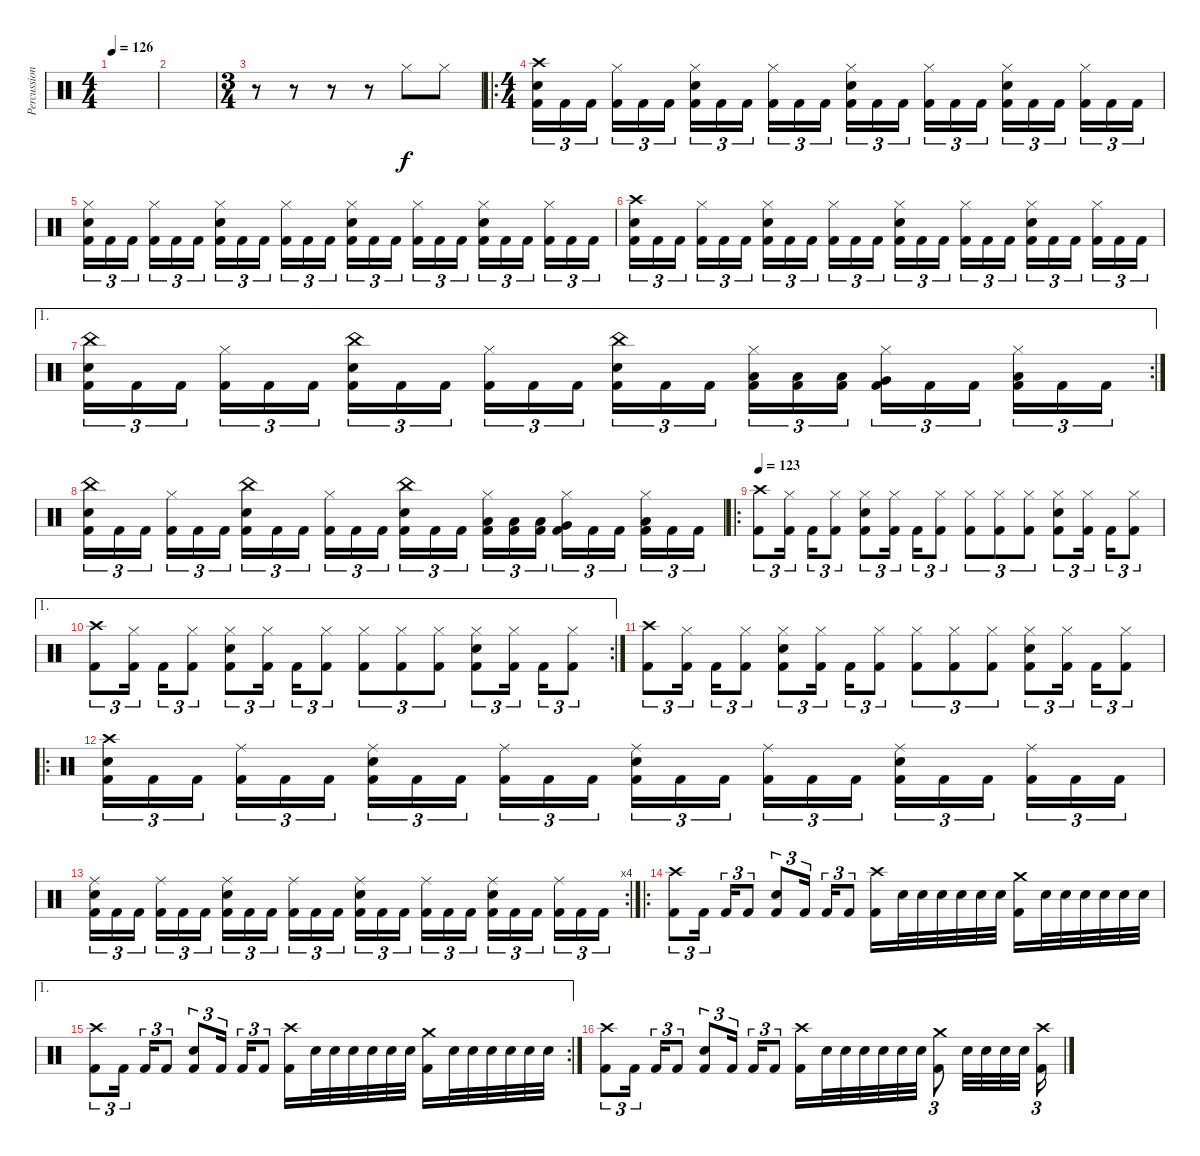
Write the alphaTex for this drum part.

\track ("Percussion" "Percussion") {instrument percussion}
\staff {score}
\articulation defaults
\ts (4 4)
\tempo 126
\clef neutral
\ks c
|
|
\ts (3 4)
r.8 r.8 r.8 r.8 "Hi-Hat (closed)".8 "Hi-Hat (closed)".8 |
\ro
\ts (4 4)
("Crash high (hit)" "Snare (hit) 2" "Kick (hit) 2").16{tu (3 2)} "Kick (hit) 2".16{tu (3 2)} "Kick (hit) 2".16{tu (3 2)} ("Hi-Hat (closed)" "Kick (hit) 2").16{tu (3 2)} "Kick (hit) 2".16{tu (3 2)} "Kick (hit) 2".16{tu (3 2)} ("Hi-Hat (closed)" "Snare (hit) 2" "Kick (hit) 2").16{tu (3 2)} "Kick (hit) 2".16{tu (3 2)} "Kick (hit) 2".16{tu (3 2)} ("Hi-Hat (closed)" "Kick (hit) 2").16{tu (3 2)} "Kick (hit) 2".16{tu (3 2)} "Kick (hit) 2".16{tu (3 2)} ("Hi-Hat (closed)" "Snare (hit) 2" "Kick (hit) 2").16{tu (3 2)} "Kick (hit) 2".16{tu (3 2)} "Kick (hit) 2".16{tu (3 2)} ("Hi-Hat (closed)" "Kick (hit) 2").16{tu (3 2)} "Kick (hit) 2".16{tu (3 2)} "Kick (hit) 2".16{tu (3 2)} ("Hi-Hat (closed)" "Snare (hit) 2" "Kick (hit) 2").16{tu (3 2)} "Kick (hit) 2".16{tu (3 2)} "Kick (hit) 2".16{tu (3 2)} ("Hi-Hat (closed)" "Kick (hit) 2").16{tu (3 2)} "Kick (hit) 2".16{tu (3 2)} "Kick (hit) 2".16{tu (3 2)} |
("Hi-Hat (closed)" "Snare (hit) 2" "Kick (hit) 2").16{tu (3 2)} "Kick (hit) 2".16{tu (3 2)} "Kick (hit) 2".16{tu (3 2)} ("Hi-Hat (closed)" "Kick (hit) 2").16{tu (3 2)} "Kick (hit) 2".16{tu (3 2)} "Kick (hit) 2".16{tu (3 2)} ("Hi-Hat (closed)" "Snare (hit) 2" "Kick (hit) 2").16{tu (3 2)} "Kick (hit) 2".16{tu (3 2)} "Kick (hit) 2".16{tu (3 2)} ("Hi-Hat (closed)" "Kick (hit) 2").16{tu (3 2)} "Kick (hit) 2".16{tu (3 2)} "Kick (hit) 2".16{tu (3 2)} ("Hi-Hat (closed)" "Snare (hit) 2" "Kick (hit) 2").16{tu (3 2)} "Kick (hit) 2".16{tu (3 2)} "Kick (hit) 2".16{tu (3 2)} ("Hi-Hat (closed)" "Kick (hit) 2").16{tu (3 2)} "Kick (hit) 2".16{tu (3 2)} "Kick (hit) 2".16{tu (3 2)} ("Hi-Hat (closed)" "Snare (hit) 2" "Kick (hit) 2").16{tu (3 2)} "Kick (hit) 2".16{tu (3 2)} "Kick (hit) 2".16{tu (3 2)} ("Hi-Hat (closed)" "Kick (hit) 2").16{tu (3 2)} "Kick (hit) 2".16{tu (3 2)} "Kick (hit) 2".16{tu (3 2)} |
("Crash high (hit)" "Snare (hit) 2" "Kick (hit) 2").16{tu (3 2)} "Kick (hit) 2".16{tu (3 2)} "Kick (hit) 2".16{tu (3 2)} ("Hi-Hat (closed)" "Kick (hit) 2").16{tu (3 2)} "Kick (hit) 2".16{tu (3 2)} "Kick (hit) 2".16{tu (3 2)} ("Hi-Hat (closed)" "Snare (hit) 2" "Kick (hit) 2").16{tu (3 2)} "Kick (hit) 2".16{tu (3 2)} "Kick (hit) 2".16{tu (3 2)} ("Hi-Hat (closed)" "Kick (hit) 2").16{tu (3 2)} "Kick (hit) 2".16{tu (3 2)} "Kick (hit) 2".16{tu (3 2)} ("Hi-Hat (closed)" "Snare (hit) 2" "Kick (hit) 2").16{tu (3 2)} "Kick (hit) 2".16{tu (3 2)} "Kick (hit) 2".16{tu (3 2)} ("Hi-Hat (closed)" "Kick (hit) 2").16{tu (3 2)} "Kick (hit) 2".16{tu (3 2)} "Kick (hit) 2".16{tu (3 2)} ("Hi-Hat (closed)" "Snare (hit) 2" "Kick (hit) 2").16{tu (3 2)} "Kick (hit) 2".16{tu (3 2)} "Kick (hit) 2".16{tu (3 2)} ("Hi-Hat (closed)" "Kick (hit) 2").16{tu (3 2)} "Kick (hit) 2".16{tu (3 2)} "Kick (hit) 2".16{tu (3 2)} |
\ae 1
\rc 2
("China (hit)" "Snare (hit) 2" "Kick (hit) 2").16{tu (3 2)} "Kick (hit) 2".16{tu (3 2)} "Kick (hit) 2".16{tu (3 2)} ("Hi-Hat (closed)" "Kick (hit) 2").16{tu (3 2)} "Kick (hit) 2".16{tu (3 2)} "Kick (hit) 2".16{tu (3 2)} ("China (hit)" "Snare (hit) 2" "Kick (hit) 2").16{tu (3 2)} "Kick (hit) 2".16{tu (3 2)} "Kick (hit) 2".16{tu (3 2)} ("Hi-Hat (closed)" "Kick (hit) 2").16{tu (3 2)} "Kick (hit) 2".16{tu (3 2)} "Kick (hit) 2".16{tu (3 2)} ("China (hit)" "Snare (hit) 2" "Kick (hit) 2").16{tu (3 2)} "Kick (hit) 2".16{tu (3 2)} "Kick (hit) 2".16{tu (3 2)} ("Hi-Hat (closed)" "Low Tom (hit)" "Kick (hit) 2").16{tu (3 2)} ("Low Tom (hit)" "Kick (hit) 2").16{tu (3 2)} ("Low Tom (hit)" "Kick (hit) 2").16{tu (3 2)} ("Hi-Hat (closed)" "Very Low Tom (hit)" "Kick (hit) 2").16{tu (3 2)} "Kick (hit) 2".16{tu (3 2)} "Kick (hit) 2".16{tu (3 2)} ("Hi-Hat (closed)" "Low Floor Tom (hit)" "Kick (hit) 2").16{tu (3 2)} "Kick (hit) 2".16{tu (3 2)} "Kick (hit) 2".16{tu (3 2)} |
("China (hit)" "Snare (hit) 2" "Kick (hit) 2").16{tu (3 2)} "Kick (hit) 2".16{tu (3 2)} "Kick (hit) 2".16{tu (3 2)} ("Hi-Hat (closed)" "Kick (hit) 2").16{tu (3 2)} "Kick (hit) 2".16{tu (3 2)} "Kick (hit) 2".16{tu (3 2)} ("China (hit)" "Snare (hit) 2" "Kick (hit) 2").16{tu (3 2)} "Kick (hit) 2".16{tu (3 2)} "Kick (hit) 2".16{tu (3 2)} ("Hi-Hat (closed)" "Kick (hit) 2").16{tu (3 2)} "Kick (hit) 2".16{tu (3 2)} "Kick (hit) 2".16{tu (3 2)} ("China (hit)" "Snare (hit) 2" "Kick (hit) 2").16{tu (3 2)} "Kick (hit) 2".16{tu (3 2)} "Kick (hit) 2".16{tu (3 2)} ("Hi-Hat (closed)" "Low Tom (hit)" "Kick (hit) 2").16{tu (3 2)} ("Low Tom (hit)" "Kick (hit) 2").16{tu (3 2)} ("Low Tom (hit)" "Kick (hit) 2").16{tu (3 2)} ("Hi-Hat (closed)" "Very Low Tom (hit)" "Kick (hit) 2").16{tu (3 2)} "Kick (hit) 2".16{tu (3 2)} "Kick (hit) 2".16{tu (3 2)} ("Hi-Hat (closed)" "Low Floor Tom (hit)" "Kick (hit) 2").16{tu (3 2)} "Kick (hit) 2".16{tu (3 2)} "Kick (hit) 2".16{tu (3 2)} |
\ro
\tempo 123
("Crash high (hit)" "Kick (hit) 2").8{tu (3 2)} ("Hi-Hat (closed)" "Kick (hit) 2").16{tu (3 2)} "Kick (hit) 2".16{tu (3 2)} ("Hi-Hat (closed)" "Kick (hit) 2").8{tu (3 2)} ("Hi-Hat (closed)" "Snare (hit) 2" "Kick (hit) 2").8{tu (3 2)} ("Hi-Hat (closed)" "Kick (hit) 2").16{tu (3 2)} "Kick (hit) 2".16{tu (3 2)} ("Hi-Hat (closed)" "Kick (hit) 2").8{tu (3 2)} ("Hi-Hat (closed)" "Kick (hit) 2").8{tu (3 2)} ("Hi-Hat (closed)" "Kick (hit) 2").8{tu (3 2)} ("Hi-Hat (closed)" "Kick (hit) 2").8{tu (3 2)} ("Hi-Hat (closed)" "Snare (hit) 2" "Kick (hit) 2").8{tu (3 2)} ("Hi-Hat (closed)" "Kick (hit) 2").16{tu (3 2)} "Kick (hit) 2".16{tu (3 2)} ("Hi-Hat (closed)" "Kick (hit) 2").8{tu (3 2)} |
\ae 1
\rc 2
("Crash high (hit)" "Kick (hit) 2").8{tu (3 2)} ("Hi-Hat (closed)" "Kick (hit) 2").16{tu (3 2)} "Kick (hit) 2".16{tu (3 2)} ("Hi-Hat (closed)" "Kick (hit) 2").8{tu (3 2)} ("Hi-Hat (closed)" "Snare (hit) 2" "Kick (hit) 2").8{tu (3 2)} ("Hi-Hat (closed)" "Kick (hit) 2").16{tu (3 2)} "Kick (hit) 2".16{tu (3 2)} ("Hi-Hat (closed)" "Kick (hit) 2").8{tu (3 2)} ("Hi-Hat (closed)" "Kick (hit) 2").8{tu (3 2)} ("Hi-Hat (closed)" "Kick (hit) 2").8{tu (3 2)} ("Hi-Hat (closed)" "Kick (hit) 2").8{tu (3 2)} ("Hi-Hat (closed)" "Snare (hit) 2" "Kick (hit) 2").8{tu (3 2)} ("Hi-Hat (closed)" "Kick (hit) 2").16{tu (3 2)} "Kick (hit) 2".16{tu (3 2)} ("Hi-Hat (closed)" "Kick (hit) 2").8{tu (3 2)} |
("Crash high (hit)" "Kick (hit) 2").8{tu (3 2)} ("Hi-Hat (closed)" "Kick (hit) 2").16{tu (3 2)} "Kick (hit) 2".16{tu (3 2)} ("Hi-Hat (closed)" "Kick (hit) 2").8{tu (3 2)} ("Hi-Hat (closed)" "Snare (hit) 2" "Kick (hit) 2").8{tu (3 2)} ("Hi-Hat (closed)" "Kick (hit) 2").16{tu (3 2)} "Kick (hit) 2".16{tu (3 2)} ("Hi-Hat (closed)" "Kick (hit) 2").8{tu (3 2)} ("Hi-Hat (closed)" "Kick (hit) 2").8{tu (3 2)} ("Hi-Hat (closed)" "Kick (hit) 2").8{tu (3 2)} ("Hi-Hat (closed)" "Kick (hit) 2").8{tu (3 2)} ("Hi-Hat (closed)" "Snare (hit) 2" "Kick (hit) 2").8{tu (3 2)} ("Hi-Hat (closed)" "Kick (hit) 2").16{tu (3 2)} "Kick (hit) 2".16{tu (3 2)} ("Hi-Hat (closed)" "Kick (hit) 2").8{tu (3 2)} |
\ro
("Crash high (hit)" "Snare (hit) 2" "Kick (hit) 2").16{tu (3 2)} "Kick (hit) 2".16{tu (3 2)} "Kick (hit) 2".16{tu (3 2)} ("Ride (middle)" "Kick (hit) 2").16{tu (3 2)} "Kick (hit) 2".16{tu (3 2)} "Kick (hit) 2".16{tu (3 2)} ("Ride (middle)" "Snare (hit) 2" "Kick (hit) 2").16{tu (3 2)} "Kick (hit) 2".16{tu (3 2)} "Kick (hit) 2".16{tu (3 2)} ("Ride (middle)" "Kick (hit) 2").16{tu (3 2)} "Kick (hit) 2".16{tu (3 2)} "Kick (hit) 2".16{tu (3 2)} ("Ride (middle)" "Snare (hit) 2" "Kick (hit) 2").16{tu (3 2)} "Kick (hit) 2".16{tu (3 2)} "Kick (hit) 2".16{tu (3 2)} ("Ride (middle)" "Kick (hit) 2").16{tu (3 2)} "Kick (hit) 2".16{tu (3 2)} "Kick (hit) 2".16{tu (3 2)} ("Ride (middle)" "Snare (hit) 2" "Kick (hit) 2").16{tu (3 2)} "Kick (hit) 2".16{tu (3 2)} "Kick (hit) 2".16{tu (3 2)} ("Ride (middle)" "Kick (hit) 2").16{tu (3 2)} "Kick (hit) 2".16{tu (3 2)} "Kick (hit) 2".16{tu (3 2)} |
\rc 4
("Ride (middle)" "Snare (hit) 2" "Kick (hit) 2").16{tu (3 2)} "Kick (hit) 2".16{tu (3 2)} "Kick (hit) 2".16{tu (3 2)} ("Ride (middle)" "Kick (hit) 2").16{tu (3 2)} "Kick (hit) 2".16{tu (3 2)} "Kick (hit) 2".16{tu (3 2)} ("Ride (middle)" "Snare (hit) 2" "Kick (hit) 2").16{tu (3 2)} "Kick (hit) 2".16{tu (3 2)} "Kick (hit) 2".16{tu (3 2)} ("Ride (middle)" "Kick (hit) 2").16{tu (3 2)} "Kick (hit) 2".16{tu (3 2)} "Kick (hit) 2".16{tu (3 2)} ("Ride (middle)" "Snare (hit) 2" "Kick (hit) 2").16{tu (3 2)} "Kick (hit) 2".16{tu (3 2)} "Kick (hit) 2".16{tu (3 2)} ("Ride (middle)" "Kick (hit) 2").16{tu (3 2)} "Kick (hit) 2".16{tu (3 2)} "Kick (hit) 2".16{tu (3 2)} ("Ride (middle)" "Snare (hit) 2" "Kick (hit) 2").16{tu (3 2)} "Kick (hit) 2".16{tu (3 2)} "Kick (hit) 2".16{tu (3 2)} ("Ride (middle)" "Kick (hit) 2").16{tu (3 2)} "Kick (hit) 2".16{tu (3 2)} "Kick (hit) 2".16{tu (3 2)} |
\ro
("Crash high (hit)" "Kick (hit) 2").8{tu (3 2)} "Kick (hit) 2".16{tu (3 2)} "Kick (hit) 2".16{tu (3 2)} "Kick (hit) 2".8{tu (3 2)} ("Snare (hit) 2" "Kick (hit) 2").8{tu (3 2)} "Kick (hit) 2".16{tu (3 2)} "Kick (hit) 2".16{tu (3 2)} "Kick (hit) 2".8{tu (3 2)} ("Crash high (hit)" "Kick (hit) 2").16 "Snare (hit) 2".32 "Snare (hit) 2".32 "Snare (hit) 2".32 "Snare (hit) 2".32 "Snare (hit) 2".32 "Snare (hit) 2".32 ("Crash medium (hit)" "Kick (hit) 2").16 "Snare (hit) 2".32 "Snare (hit) 2".32 "Snare (hit) 2".32 "Snare (hit) 2".32 "Snare (hit) 2".32 "Snare (hit) 2".32 |
\ae 1
\rc 2
("Crash high (hit)" "Kick (hit) 2").8{tu (3 2)} "Kick (hit) 2".16{tu (3 2)} "Kick (hit) 2".16{tu (3 2)} "Kick (hit) 2".8{tu (3 2)} ("Snare (hit) 2" "Kick (hit) 2").8{tu (3 2)} "Kick (hit) 2".16{tu (3 2)} "Kick (hit) 2".16{tu (3 2)} "Kick (hit) 2".8{tu (3 2)} ("Crash high (hit)" "Kick (hit) 2").16 "Snare (hit) 2".32 "Snare (hit) 2".32 "Snare (hit) 2".32 "Snare (hit) 2".32 "Snare (hit) 2".32 "Snare (hit) 2".32 ("Crash medium (hit)" "Kick (hit) 2").16 "Snare (hit) 2".32 "Snare (hit) 2".32 "Snare (hit) 2".32 "Snare (hit) 2".32 "Snare (hit) 2".32 "Snare (hit) 2".32 |
("Crash high (hit)" "Kick (hit) 2").8{tu (3 2)} "Kick (hit) 2".16{tu (3 2)} "Kick (hit) 2".16{tu (3 2)} "Kick (hit) 2".8{tu (3 2)} ("Snare (hit) 2" "Kick (hit) 2").8{tu (3 2)} "Kick (hit) 2".16{tu (3 2)} "Kick (hit) 2".16{tu (3 2)} "Kick (hit) 2".8{tu (3 2)} ("Crash high (hit)" "Kick (hit) 2").16 "Snare (hit) 2".32 "Snare (hit) 2".32 "Snare (hit) 2".32 "Snare (hit) 2".32 "Snare (hit) 2".32 "Snare (hit) 2".32 ("Crash medium (hit)" "Kick (hit) 2").8{tu (3 2)} "Snare (hit) 2".32 "Snare (hit) 2".32 "Snare (hit) 2".32 "Snare (hit) 2".32 ("Crash high (hit)" "Kick (hit) 2").16{tu (3 2)}
